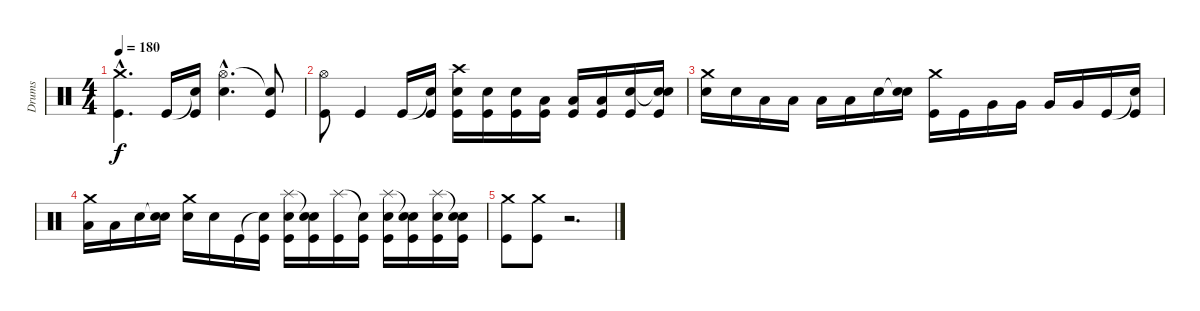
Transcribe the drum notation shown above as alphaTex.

\track ("Drums" "Drums") {instrument percussion}
\staff {score}
\articulation defaults
\ts (4 4)
\tempo 180
\clef neutral
\ks c
("Crash medium (hit)"{hac} "Kick (hit)"{hac}).4{d dy f} "Kick (hit)".16 ("Snare (hit)"{t} "Kick (hit)").16 ("Hi-Hat (open)"{hac} "Electric Snare (hit)"{hac}).4{d} ("Snare (hit)"{t} "Kick (hit)").8 |
("Hi-Hat (open)" "Kick (hit)").8 "Kick (hit)".4 "Kick (hit)".16 ("Snare (hit)"{t} "Kick (hit)").16 ("Crash high (hit)" "Electric Snare (hit)" "Kick (hit)").16 ("Electric Snare (hit)" "Kick (hit)").16 ("Electric Snare (hit)" "Kick (hit)").16 ("Low Floor Tom (hit)" "Kick (hit)").16 ("Low Floor Tom (hit)" "Kick (hit)").16 ("Low Floor Tom (hit)" "Kick (hit)").16 ("Electric Snare (hit)" "Kick (hit)").16 ("Snare (hit)"{t} "Electric Snare (hit)" "Kick (hit)").16 |
("Crash medium (hit)" "Electric Snare (hit)").16 "Electric Snare (hit)".16 "Low Tom (hit)".16 "Low Tom (hit)".16 "Low Tom (hit)".16 "Low Tom (hit)".16 "Electric Snare (hit)".16 ("Snare (hit)"{t} "Electric Snare (hit)").16 ("Crash medium (hit)" "Kick (hit)").16 "Kick (hit)".16 "Very Low Tom (hit)".16 "Very Low Tom (hit)".16 "Very Low Tom (hit)".16 "Very Low Tom (hit)".16 "Kick (hit)".16 ("Snare (hit)"{t} "Kick (hit)").16 |
("Crash medium (hit)" "Low Floor Tom (hit)").16 "Low Floor Tom (hit)".16 "Electric Snare (hit)".16 ("Snare (hit)"{t} "Electric Snare (hit)").16 ("Crash medium (hit)" "Electric Snare (hit)").16 "Electric Snare (hit)".16 "Kick (hit)".16 ("Snare (hit)"{t} "Kick (hit)").16 ("Splash (hit)" "Electric Snare (hit)" "Kick (hit)").16 ("Snare (hit)"{t} "Electric Snare (hit)" "Kick (hit)").16 ("Splash (hit)" "Kick (hit)").16 ("Snare (hit)"{t} "Kick (hit)").16 ("Splash (hit)" "Electric Snare (hit)" "Kick (hit)").16 ("Snare (hit)"{t} "Electric Snare (hit)" "Kick (hit)").16 ("Splash (hit)" "Electric Snare (hit)" "Kick (hit)").16 ("Snare (hit)"{t} "Electric Snare (hit)" "Kick (hit)").16 |
("Crash medium (hit)" "Kick (hit)").8 ("Crash medium (hit)" "Kick (hit)").8 r.2{d}
